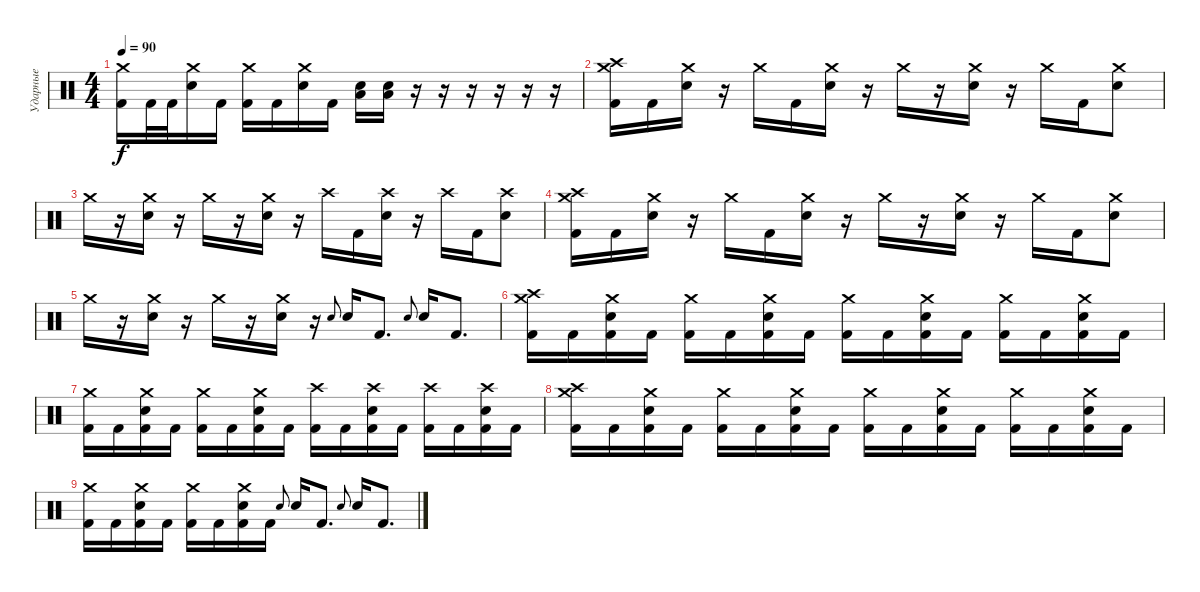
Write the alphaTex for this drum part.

\track ("Ударные" "Ударные") {instrument percussion}
\staff {score}
\articulation defaults
\ts (4 4)
\tempo 90
\clef neutral
\ks c
("Crash medium (hit)" "Kick (hit) 2").16{dy f} "Kick (hit) 2".32 "Kick (hit) 2".32 ("Crash medium (hit)" "Electric Snare (hit)").16 "Kick (hit) 2".16 ("Crash medium (hit)" "Kick (hit) 2").16 "Kick (hit) 2".16 ("Crash medium (hit)" "Electric Snare (hit)").16 "Kick (hit) 2".16 ("Low Floor Tom (hit)" "Electric Snare (hit)").16 ("Low Floor Tom (hit)" "Electric Snare (hit)").16 r.16 r.16 r.16 r.16 r.16 r.16 |
("Crash medium (hit)" "Crash high (hit)" "Kick (hit) 2").16 "Kick (hit) 2".16 ("Crash medium (hit)" "Electric Snare (hit)").16 r.16 "Crash medium (hit)".16 "Kick (hit) 2".16 ("Crash medium (hit)" "Electric Snare (hit)").16 r.16 "Crash medium (hit)".16 r.16 ("Crash medium (hit)" "Electric Snare (hit)").16 r.16 "Crash medium (hit)".16 "Kick (hit) 2".16 ("Crash medium (hit)" "Electric Snare (hit)").8 |
"Crash medium (hit)".16 r.16 ("Crash medium (hit)" "Electric Snare (hit)").16 r.16 "Crash medium (hit)".16 r.16 ("Crash medium (hit)" "Electric Snare (hit)").16 r.16 "Crash high (hit)".16 "Kick (hit) 2".16 ("Crash high (hit)" "Electric Snare (hit)").16 r.16 "Crash high (hit)".16 "Kick (hit) 2".16 ("Crash high (hit)" "Electric Snare (hit)").8 |
("Crash medium (hit)" "Crash high (hit)" "Kick (hit) 2").16 "Kick (hit) 2".16 ("Crash medium (hit)" "Electric Snare (hit)").16 r.16 "Crash medium (hit)".16 "Kick (hit) 2".16 ("Crash medium (hit)" "Electric Snare (hit)").16 r.16 "Crash medium (hit)".16 r.16 ("Crash medium (hit)" "Electric Snare (hit)").16 r.16 "Crash medium (hit)".16 "Kick (hit) 2".16 ("Crash medium (hit)" "Electric Snare (hit)").8 |
"Crash medium (hit)".16 r.16 ("Crash medium (hit)" "Electric Snare (hit)").16 r.16 "Crash medium (hit)".16 r.16 ("Crash medium (hit)" "Electric Snare (hit)").16 r.16 "Electric Snare (hit)".8{gr onbeat} "Electric Snare (hit)".16 "Kick (hit) 2".8{d} "Electric Snare (hit)".8{gr onbeat} "Electric Snare (hit)".16 "Kick (hit) 2".8{d} |
("Crash medium (hit)" "Crash high (hit)" "Kick (hit) 2").16 "Kick (hit) 2".16 ("Crash medium (hit)" "Electric Snare (hit)" "Kick (hit) 2").16 "Kick (hit) 2".16 ("Crash medium (hit)" "Kick (hit) 2").16 "Kick (hit) 2".16 ("Crash medium (hit)" "Electric Snare (hit)" "Kick (hit) 2").16 "Kick (hit) 2".16 ("Crash medium (hit)" "Kick (hit) 2").16 "Kick (hit) 2".16 ("Crash medium (hit)" "Electric Snare (hit)" "Kick (hit) 2").16 "Kick (hit) 2".16 ("Crash medium (hit)" "Kick (hit) 2").16 "Kick (hit) 2".16 ("Crash medium (hit)" "Electric Snare (hit)" "Kick (hit) 2").16 "Kick (hit) 2".16 |
("Crash medium (hit)" "Kick (hit) 2").16 "Kick (hit) 2".16 ("Crash medium (hit)" "Electric Snare (hit)" "Kick (hit) 2").16 "Kick (hit) 2".16 ("Crash medium (hit)" "Kick (hit) 2").16 "Kick (hit) 2".16 ("Crash medium (hit)" "Electric Snare (hit)" "Kick (hit) 2").16 "Kick (hit) 2".16 ("Crash high (hit)" "Kick (hit) 2").16 "Kick (hit) 2".16 ("Crash high (hit)" "Electric Snare (hit)" "Kick (hit) 2").16 "Kick (hit) 2".16 ("Crash high (hit)" "Kick (hit) 2").16 "Kick (hit) 2".16 ("Crash high (hit)" "Electric Snare (hit)" "Kick (hit) 2").16 "Kick (hit) 2".16 |
("Crash medium (hit)" "Crash high (hit)" "Kick (hit) 2").16 "Kick (hit) 2".16 ("Crash medium (hit)" "Electric Snare (hit)" "Kick (hit) 2").16 "Kick (hit) 2".16 ("Crash medium (hit)" "Kick (hit) 2").16 "Kick (hit) 2".16 ("Crash medium (hit)" "Electric Snare (hit)" "Kick (hit) 2").16 "Kick (hit) 2".16 ("Crash medium (hit)" "Kick (hit) 2").16 "Kick (hit) 2".16 ("Crash medium (hit)" "Electric Snare (hit)" "Kick (hit) 2").16 "Kick (hit) 2".16 ("Crash medium (hit)" "Kick (hit) 2").16 "Kick (hit) 2".16 ("Crash medium (hit)" "Electric Snare (hit)" "Kick (hit) 2").16 "Kick (hit) 2".16 |
("Crash medium (hit)" "Kick (hit) 2").16 "Kick (hit) 2".16 ("Crash medium (hit)" "Electric Snare (hit)" "Kick (hit) 2").16 "Kick (hit) 2".16 ("Crash medium (hit)" "Kick (hit) 2").16 "Kick (hit) 2".16 ("Crash medium (hit)" "Electric Snare (hit)" "Kick (hit) 2").16 "Kick (hit) 2".16 "Electric Snare (hit)".8{gr onbeat} "Electric Snare (hit)".16 "Kick (hit) 2".8{d} "Electric Snare (hit)".8{gr onbeat} "Electric Snare (hit)".16 "Kick (hit) 2".8{d}
